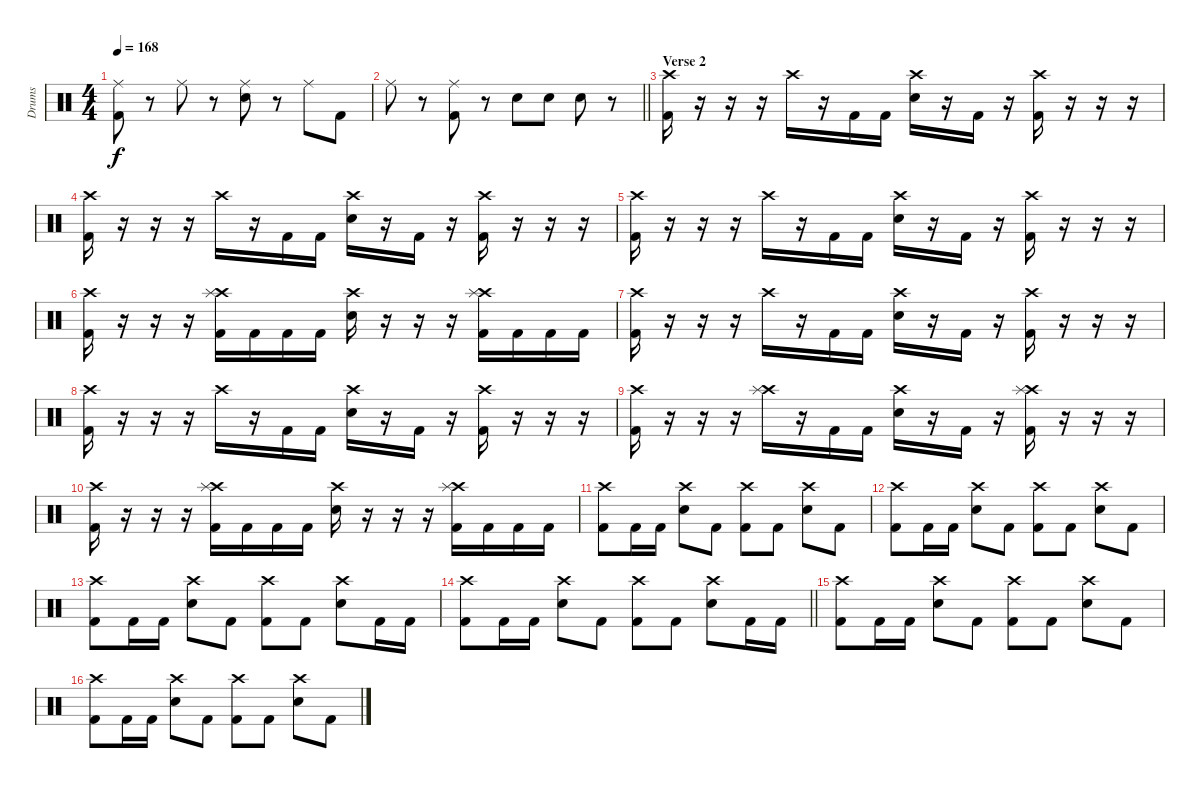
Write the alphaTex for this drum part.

\track ("Drums" "Drums") {instrument percussion}
\staff {score}
\articulation defaults
\ts (4 4)
\tempo 168
\clef neutral
\ks c
("Ride (middle)" "Kick (hit) 2").8{dy f} r.8 "Ride (middle)".8 r.8 ("Ride (middle)" "Snare (hit) 2").8 r.8 "Ride (middle)".8 "Kick (hit) 2".8 |
\barLineRight lightlight "Ride (middle)".8
r.8 ("Ride (middle)" "Kick (hit) 2").8 r.8 "Snare (hit) 2".8 "Snare (hit) 2".8 "Snare (hit) 2".8 r.8 |
\section ("" "Verse 2")
("Crash high (hit)" "Kick (hit) 2").16 r.16 r.16 r.16 "Crash high (hit)".16 r.16 "Kick (hit) 2".16 "Kick (hit) 2".16 ("Crash high (hit)" "Snare (hit) 2").16 r.16 "Kick (hit) 2".16 r.16 ("Crash high (hit)" "Kick (hit) 2").16 r.16 r.16 r.16 |
("Crash high (hit)" "Kick (hit) 2").16 r.16 r.16 r.16 "Crash high (hit)".16 r.16 "Kick (hit) 2".16 "Kick (hit) 2".16 ("Crash high (hit)" "Snare (hit) 2").16 r.16 "Kick (hit) 2".16 r.16 ("Crash high (hit)" "Kick (hit) 2").16 r.16 r.16 r.16 |
("Crash high (hit)" "Kick (hit) 2").16 r.16 r.16 r.16 "Crash high (hit)".16 r.16 "Kick (hit) 2".16 "Kick (hit) 2".16 ("Crash high (hit)" "Snare (hit) 2").16 r.16 "Kick (hit) 2".16 r.16 ("Crash high (hit)" "Kick (hit) 2").16 r.16 r.16 r.16 |
("Crash high (hit)" "Kick (hit) 2").16 r.16 r.16 r.16 ("Crash high (hit)" "Splash (hit)" "Kick (hit) 2").16 "Kick (hit) 2".16 "Kick (hit) 2".16 "Kick (hit) 2".16 ("Crash high (hit)" "Snare (hit) 2").16 r.16 r.16 r.16 ("Crash high (hit)" "Splash (hit)" "Kick (hit) 2").16 "Kick (hit) 2".16 "Kick (hit) 2".16 "Kick (hit) 2".16 |
("Crash high (hit)" "Kick (hit) 2").16 r.16 r.16 r.16 "Crash high (hit)".16 r.16 "Kick (hit) 2".16 "Kick (hit) 2".16 ("Crash high (hit)" "Snare (hit) 2").16 r.16 "Kick (hit) 2".16 r.16 ("Crash high (hit)" "Kick (hit) 2").16 r.16 r.16 r.16 |
("Crash high (hit)" "Kick (hit) 2").16 r.16 r.16 r.16 "Crash high (hit)".16 r.16 "Kick (hit) 2".16 "Kick (hit) 2".16 ("Crash high (hit)" "Snare (hit) 2").16 r.16 "Kick (hit) 2".16 r.16 ("Crash high (hit)" "Kick (hit) 2").16 r.16 r.16 r.16 |
("Crash high (hit)" "Kick (hit) 2").16 r.16 r.16 r.16 ("Crash high (hit)" "Splash (hit)").16 r.16 "Kick (hit) 2".16 "Kick (hit) 2".16 ("Crash high (hit)" "Snare (hit) 2").16 r.16 "Kick (hit) 2".16 r.16 ("Crash high (hit)" "Splash (hit)" "Kick (hit) 2").16 r.16 r.16 r.16 |
("Crash high (hit)" "Kick (hit) 2").16 r.16 r.16 r.16 ("Crash high (hit)" "Splash (hit)" "Kick (hit) 2").16 "Kick (hit) 2".16 "Kick (hit) 2".16 "Kick (hit) 2".16 ("Crash high (hit)" "Snare (hit) 2").16 r.16 r.16 r.16 ("Crash high (hit)" "Splash (hit)" "Kick (hit) 2").16 "Kick (hit) 2".16 "Kick (hit) 2".16 "Kick (hit) 2".16 |
("Crash high (hit)" "Kick (hit) 2").8 "Kick (hit) 2".16 "Kick (hit) 2".16 ("Crash high (hit)" "Snare (hit) 2").8 "Kick (hit) 2".8 ("Crash high (hit)" "Kick (hit) 2").8 "Kick (hit) 2".8 ("Crash high (hit)" "Snare (hit) 2").8 "Kick (hit) 2".8 |
("Crash high (hit)" "Kick (hit) 2").8 "Kick (hit) 2".16 "Kick (hit) 2".16 ("Crash high (hit)" "Snare (hit) 2").8 "Kick (hit) 2".8 ("Crash high (hit)" "Kick (hit) 2").8 "Kick (hit) 2".8 ("Crash high (hit)" "Snare (hit) 2").8 "Kick (hit) 2".8 |
("Crash high (hit)" "Kick (hit) 2").8 "Kick (hit) 2".16 "Kick (hit) 2".16 ("Crash high (hit)" "Snare (hit) 2").8 "Kick (hit) 2".8 ("Crash high (hit)" "Kick (hit) 2").8 "Kick (hit) 2".8 ("Crash high (hit)" "Snare (hit) 2").8 "Kick (hit) 2".16 "Kick (hit) 2".16 |
\barLineRight lightlight
("Crash high (hit)" "Kick (hit) 2").8 "Kick (hit) 2".16 "Kick (hit) 2".16 ("Crash high (hit)" "Snare (hit) 2").8 "Kick (hit) 2".8 ("Crash high (hit)" "Kick (hit) 2").8 "Kick (hit) 2".8 ("Crash high (hit)" "Snare (hit) 2").8 "Kick (hit) 2".16 "Kick (hit) 2".16 |
("Crash high (hit)" "Kick (hit) 2").8 "Kick (hit) 2".16 "Kick (hit) 2".16 ("Crash high (hit)" "Snare (hit) 2").8 "Kick (hit) 2".8 ("Crash high (hit)" "Kick (hit) 2").8 "Kick (hit) 2".8 ("Crash high (hit)" "Snare (hit) 2").8 "Kick (hit) 2".8 |
("Crash high (hit)" "Kick (hit) 2").8 "Kick (hit) 2".16 "Kick (hit) 2".16 ("Crash high (hit)" "Snare (hit) 2").8 "Kick (hit) 2".8 ("Crash high (hit)" "Kick (hit) 2").8 "Kick (hit) 2".8 ("Crash high (hit)" "Snare (hit) 2").8 "Kick (hit) 2".8
